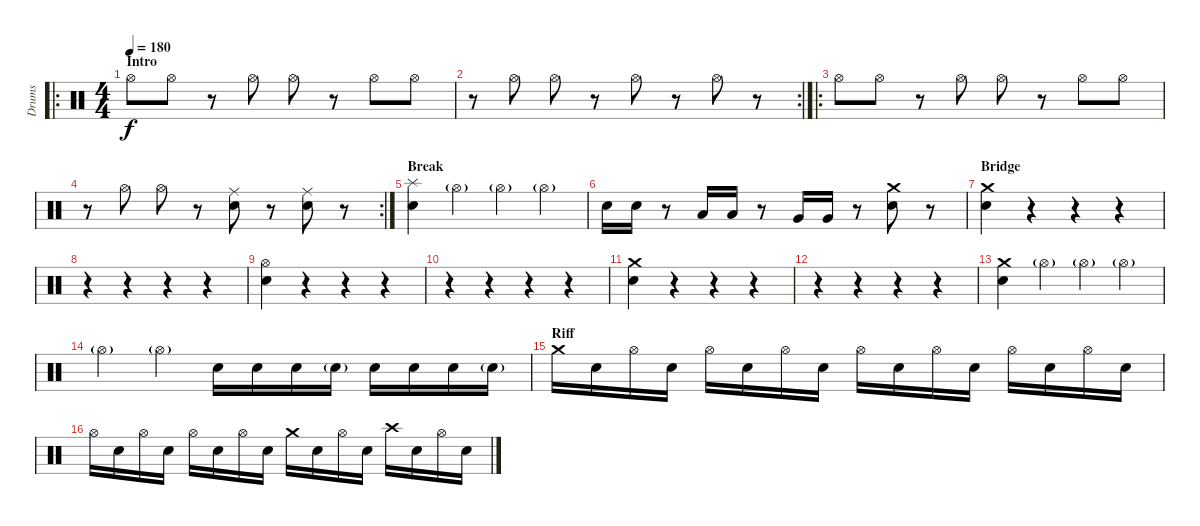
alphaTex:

\track ("Drums" "Drums") {instrument percussion}
\staff {score}
\articulation defaults
\ro
\ts (4 4)
\section ("" "Intro")
\tempo 180
\clef neutral
\ks c "Hi-Hat (open)".8{dy f} "Hi-Hat (open)".8
r.8 "Hi-Hat (open)".8 "Hi-Hat (open)".8 r.8 "Hi-Hat (open)".8 "Hi-Hat (open)".8 |
\rc 2
r.8 "Hi-Hat (open)".8 "Hi-Hat (open)".8 r.8 "Hi-Hat (open)".8 r.8 "Hi-Hat (open)".8 r.8 |
\ro "Hi-Hat (open)".8 "Hi-Hat (open)".8
r.8 "Hi-Hat (open)".8 "Hi-Hat (open)".8 r.8 "Hi-Hat (open)".8 "Hi-Hat (open)".8 |
\rc 2
r.8 "Hi-Hat (open)".8 "Hi-Hat (open)".8 r.8 ("Ride (middle)" "Electric Snare (hit)").8 r.8 ("Ride (middle)" "Electric Snare (hit)").8 r.8 |
\section ("" "Break")
("Splash (hit)" "Electric Snare (hit)").4 "Hi-Hat (open)"{g}.4 "Hi-Hat (open)"{g}.4 "Hi-Hat (open)"{g}.4 |
"Electric Snare (hit)".16 "Electric Snare (hit)".16 r.8 "Low Tom (hit)".16 "Low Tom (hit)".16 r.8 "Very Low Tom (hit)".16 "Very Low Tom (hit)".16 r.8 ("Crash medium (hit)" "Electric Snare (hit)").8 r.8 |
\section ("" "Bridge")
("Crash medium (hit)" "Electric Snare (hit)").4 r.4 r.4 r.4 |
r.4 r.4 r.4 r.4 |
("Hi-Hat (open)" "Electric Snare (hit)").4 r.4 r.4 r.4 |
r.4 r.4 r.4 r.4 |
("Crash medium (hit)" "Electric Snare (hit)").4 r.4 r.4 r.4 |
r.4 r.4 r.4 r.4 |
("Crash medium (hit)" "Electric Snare (hit)").4 "Hi-Hat (open)"{g}.4 "Hi-Hat (open)"{g}.4 "Hi-Hat (open)"{g}.4 |
"Hi-Hat (open)"{g}.4 "Hi-Hat (open)"{g}.4 "Electric Snare (hit)".16 "Electric Snare (hit)".16 "Electric Snare (hit)".16 "Electric Snare (hit)"{g}.16 "Electric Snare (hit)".16 "Electric Snare (hit)".16 "Electric Snare (hit)".16 "Electric Snare (hit)"{g}.16 |
\section ("" "Riff")
"Crash medium (hit)".16 "Electric Snare (hit)".16 "Hi-Hat (open)".16 "Electric Snare (hit)".16 "Hi-Hat (open)".16 "Electric Snare (hit)".16 "Hi-Hat (open)".16 "Electric Snare (hit)".16 "Hi-Hat (open)".16 "Electric Snare (hit)".16 "Hi-Hat (open)".16 "Electric Snare (hit)".16 "Hi-Hat (open)".16 "Electric Snare (hit)".16 "Hi-Hat (open)".16 "Electric Snare (hit)".16 |
"Hi-Hat (open)".16 "Electric Snare (hit)".16 "Hi-Hat (open)".16 "Electric Snare (hit)".16 "Hi-Hat (open)".16 "Electric Snare (hit)".16 "Hi-Hat (open)".16 "Electric Snare (hit)".16 "Crash medium (hit)".16 "Electric Snare (hit)".16 "Hi-Hat (open)".16 "Electric Snare (hit)".16 "Crash high (hit)".16 "Electric Snare (hit)".16 "Hi-Hat (open)".16 "Electric Snare (hit)".16
